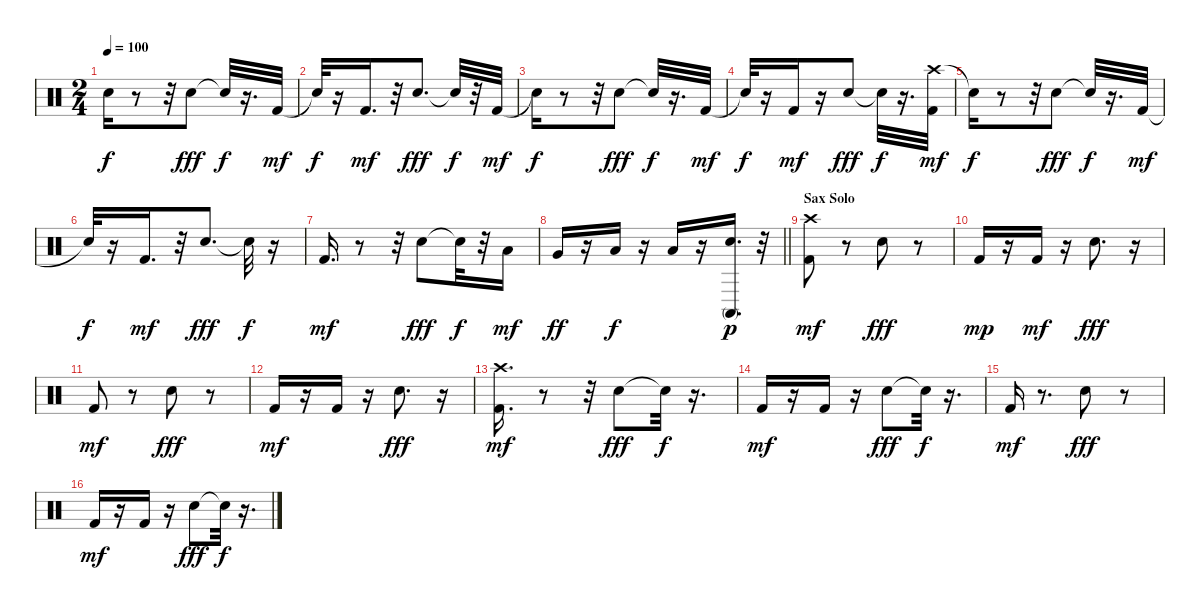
\track "" {instrument percussion}
\staff {score}
\articulation defaults
\ts (2 4)
\tempo 100
\clef neutral
\ks c "Snare (hit)"{t}.16{dy f}
r.8 r.32 "Snare (hit) 2".8{dy fff} "Snare (hit)"{t}.32{dy f} r.16{d} "Kick (hit) 2".32{dy mf} |
"Snare (hit)"{t}.32{dy f} r.16 "Kick (hit) 2".16{d dy mf} r.32 "Snare (hit) 2".8{d dy fff} "Snare (hit)"{t}.32{dy f} r.32 "Kick (hit) 2".32{dy mf} |
"Snare (hit)"{t}.16{dy f} r.8 r.32 "Snare (hit) 2".8{dy fff} "Snare (hit)"{t}.32{dy f} r.16{d} "Kick (hit) 2".32{dy mf} |
"Snare (hit)"{t}.32{dy f} r.16 "Kick (hit) 2".16{dy mf} r.16 "Snare (hit) 2".8{dy fff} "Snare (hit)"{t}.32{dy f} r.16{d} ("Crash high (hit)" "Kick (hit) 2").32{dy mf} |
"Snare (hit)"{t}.16{dy f} r.8 r.32 "Snare (hit) 2".8{dy fff} "Snare (hit)"{t}.32{dy f} r.16{d} "Kick (hit) 2".32{dy mf} |
"Snare (hit)"{t}.32{dy f} r.16 "Kick (hit) 2".16{d dy mf} r.32 "Snare (hit) 2".8{d dy fff} "Snare (hit)"{t}.32{dy f} r.16 |
"Kick (hit) 2".16{d dy mf} r.8 r.32 "Snare (hit) 2".8{dy fff} "Snare (hit)"{t}.32{dy f} r.32 "Low Floor Tom (hit)".16{dy mf} |
\barLineRight lightlight "Very Low Tom (hit)".16{dy ff}
r.16 "Low Tom (hit)".16{dy f} r.16 "Low Floor Tom (hit)".16 r.16 ("Conga high (mute)" "Snare (hit) 2").16{d dy p} r.32 |
\section ("" "Sax Solo")
("Kick (hit) 2" "Crash high (hit)").8{dy mf} r.8 "Snare (hit) 2".8{dy fff} r.8 |
"Kick (hit) 2".16{dy mp} r.16 "Kick (hit) 2".16{dy mf} r.16 "Snare (hit) 2".8{d dy fff} r.16 |
"Kick (hit) 2".8{dy mf} r.8 "Snare (hit) 2".8{dy fff} r.8 |
"Kick (hit) 2".16{dy mf} r.16 "Kick (hit) 2".16 r.16 "Snare (hit) 2".8{d dy fff} r.16 |
("Kick (hit) 2" "Crash high (hit)").16{d dy mf} r.8 r.32 "Snare (hit) 2".8{dy fff} "Snare (hit)"{t}.32{dy f} r.16{d} |
"Kick (hit) 2".16{dy mf} r.16 "Kick (hit) 2".16 r.16 "Snare (hit) 2".8{dy fff} "Snare (hit)"{t}.32{dy f} r.16{d} |
"Kick (hit) 2".16{dy mf} r.8{d} "Snare (hit) 2".8{dy fff} r.8 |
"Kick (hit) 2".16{dy mf} r.16 "Kick (hit) 2".16 r.16 "Snare (hit) 2".8{dy fff} "Snare (hit)"{t}.32{dy f} r.16{d}
